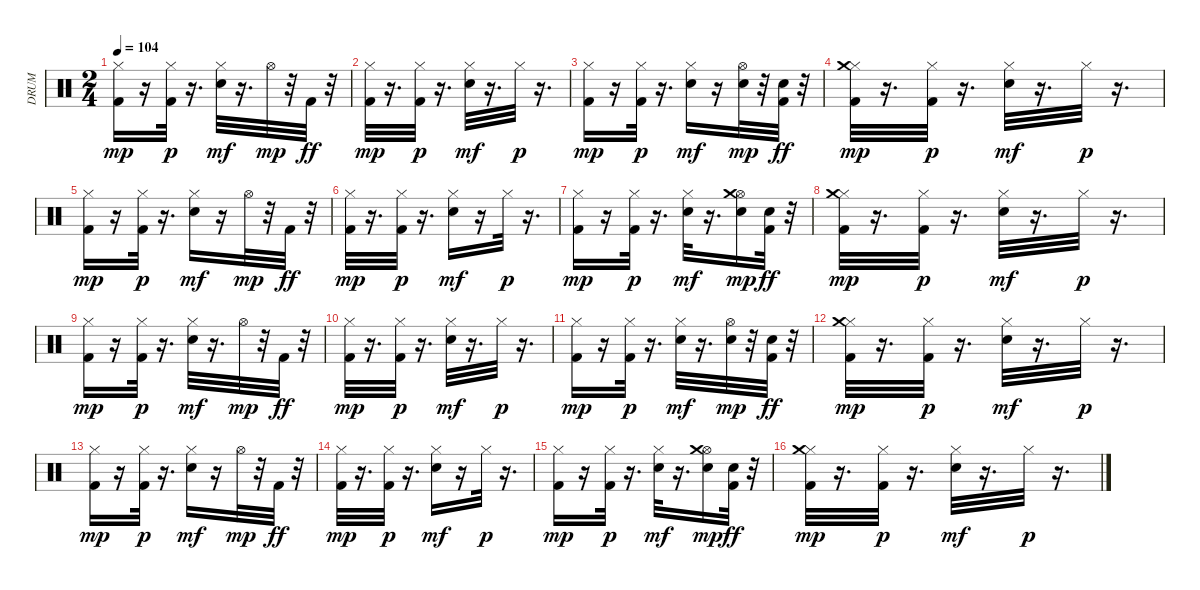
\track ("DRUM    " "DRUM    ") {instrument percussion}
\staff {score}
\articulation defaults
\ts (2 4)
\tempo 104
\clef neutral
\ks c
("Kick (hit) 2" "Hi-Hat (closed)").16{dy mp} r.16 ("Kick (hit) 2" "Hi-Hat (closed)").32{dy p} r.16{d} ("Snare (hit) 2" "Hi-Hat (closed)").32{dy mf} r.16{d} "Hi-Hat (open)".32{dy mp} r.32 "Kick (hit) 2".32{dy ff} r.32 |
("Kick (hit) 2" "Hi-Hat (closed)").32{dy mp} r.16{d} ("Kick (hit) 2" "Hi-Hat (closed)").32{dy p} r.16{d} ("Snare (hit) 2" "Hi-Hat (closed)").32{dy mf} r.16{d} "Hi-Hat (closed)".32{dy p} r.16{d} |
("Kick (hit) 2" "Hi-Hat (closed)").16{dy mp} r.16 ("Kick (hit) 2" "Hi-Hat (closed)").32{dy p} r.16{d} ("Snare (hit) 2" "Hi-Hat (closed)").16{dy mf} r.16 ("Snare (hit) 2" "Hi-Hat (open)").32{dy mp} r.32 ("Kick (hit) 2" "Snare (hit) 2").32{dy ff} r.32 |
("Kick (hit) 2" "Hi-Hat (closed)" "Crash medium (hit)").32{dy mp} r.16{d} ("Kick (hit) 2" "Hi-Hat (closed)").32{dy p} r.16{d} ("Snare (hit) 2" "Hi-Hat (closed)").32{dy mf} r.16{d} "Hi-Hat (closed)".32{dy p} r.16{d} |
("Kick (hit) 2" "Hi-Hat (closed)").16{dy mp} r.16 ("Kick (hit) 2" "Hi-Hat (closed)").32{dy p} r.16{d} ("Snare (hit) 2" "Hi-Hat (closed)").16{dy mf} r.16 "Hi-Hat (open)".32{dy mp} r.32 "Kick (hit) 2".32{dy ff} r.32 |
("Kick (hit) 2" "Hi-Hat (closed)").32{dy mp} r.16{d} ("Kick (hit) 2" "Hi-Hat (closed)").32{dy p} r.16{d} ("Snare (hit) 2" "Hi-Hat (closed)").16{dy mf} r.16 "Hi-Hat (closed)".32{dy p} r.16{d} |
("Kick (hit) 2" "Hi-Hat (closed)").16{dy mp} r.16 ("Kick (hit) 2" "Hi-Hat (closed)").32{dy p} r.16{d} ("Snare (hit) 2" "Hi-Hat (closed)").32{dy mf} r.16{d} ("Snare (hit) 2" "Hi-Hat (open)" "Crash medium (hit)").16{dy mp} ("Kick (hit) 2" "Snare (hit) 2").32{dy ff} r.32 |
("Kick (hit) 2" "Hi-Hat (closed)" "Crash medium (hit)").32{dy mp} r.16{d} ("Kick (hit) 2" "Hi-Hat (closed)").32{dy p} r.16{d} ("Snare (hit) 2" "Hi-Hat (closed)").32{dy mf} r.16{d} "Hi-Hat (closed)".32{dy p} r.16{d} |
("Kick (hit) 2" "Hi-Hat (closed)").16{dy mp} r.16 ("Kick (hit) 2" "Hi-Hat (closed)").32{dy p} r.16{d} ("Snare (hit) 2" "Hi-Hat (closed)").32{dy mf} r.16{d} "Hi-Hat (open)".32{dy mp} r.32 "Kick (hit) 2".32{dy ff} r.32 |
("Kick (hit) 2" "Hi-Hat (closed)").32{dy mp} r.16{d} ("Kick (hit) 2" "Hi-Hat (closed)").32{dy p} r.16{d} ("Snare (hit) 2" "Hi-Hat (closed)").32{dy mf} r.16{d} "Hi-Hat (closed)".32{dy p} r.16{d} |
("Kick (hit) 2" "Hi-Hat (closed)").16{dy mp} r.16 ("Kick (hit) 2" "Hi-Hat (closed)").32{dy p} r.16{d} ("Snare (hit) 2" "Hi-Hat (closed)").32{dy mf} r.16{d} ("Snare (hit) 2" "Hi-Hat (open)").32{dy mp} r.32 ("Kick (hit) 2" "Snare (hit) 2").32{dy ff} r.32 |
("Kick (hit) 2" "Hi-Hat (closed)" "Crash medium (hit)").32{dy mp} r.16{d} ("Kick (hit) 2" "Hi-Hat (closed)").32{dy p} r.16{d} ("Snare (hit) 2" "Hi-Hat (closed)").32{dy mf} r.16{d} "Hi-Hat (closed)".32{dy p} r.16{d} |
("Kick (hit) 2" "Hi-Hat (closed)").16{dy mp} r.16 ("Kick (hit) 2" "Hi-Hat (closed)").32{dy p} r.16{d} ("Snare (hit) 2" "Hi-Hat (closed)").16{dy mf} r.16 "Hi-Hat (open)".32{dy mp} r.32 "Kick (hit) 2".32{dy ff} r.32 |
("Kick (hit) 2" "Hi-Hat (closed)").32{dy mp} r.16{d} ("Kick (hit) 2" "Hi-Hat (closed)").32{dy p} r.16{d} ("Snare (hit) 2" "Hi-Hat (closed)").16{dy mf} r.16 "Hi-Hat (closed)".32{dy p} r.16{d} |
("Kick (hit) 2" "Hi-Hat (closed)").16{dy mp} r.16 ("Kick (hit) 2" "Hi-Hat (closed)").32{dy p} r.16{d} ("Snare (hit) 2" "Hi-Hat (closed)").32{dy mf} r.16{d} ("Snare (hit) 2" "Hi-Hat (open)" "Crash medium (hit)").16{dy mp} ("Kick (hit) 2" "Snare (hit) 2").32{dy ff} r.32 |
("Kick (hit) 2" "Hi-Hat (closed)" "Crash medium (hit)").32{dy mp} r.16{d} ("Kick (hit) 2" "Hi-Hat (closed)").32{dy p} r.16{d} ("Snare (hit) 2" "Hi-Hat (closed)").32{dy mf} r.16{d} "Hi-Hat (closed)".32{dy p} r.16{d}
